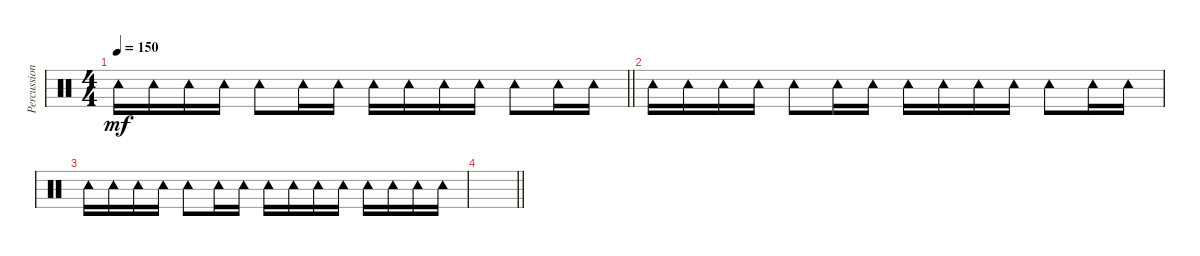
\track ("Percussion" "Percussion") {instrument percussion}
\staff {score}
\articulation defaults
\ts (4 4)
\tempo 150
\clef neutral
\barLineRight lightlight
\ks c "Tambourine (hit)".16{dy mf} "Tambourine (hit)".16 "Tambourine (hit)".16 "Tambourine (hit)".16 "Tambourine (hit)".8 "Tambourine (hit)".16 "Tambourine (hit)".16 "Tambourine (hit)".16 "Tambourine (hit)".16 "Tambourine (hit)".16 "Tambourine (hit)".16 "Tambourine (hit)".8 "Tambourine (hit)".16 "Tambourine (hit)".16
|
"Tambourine (hit)".16 "Tambourine (hit)".16 "Tambourine (hit)".16 "Tambourine (hit)".16 "Tambourine (hit)".8 "Tambourine (hit)".16 "Tambourine (hit)".16 "Tambourine (hit)".16 "Tambourine (hit)".16 "Tambourine (hit)".16 "Tambourine (hit)".16 "Tambourine (hit)".8 "Tambourine (hit)".16 "Tambourine (hit)".16 |
"Tambourine (hit)".16 "Tambourine (hit)".16 "Tambourine (hit)".16 "Tambourine (hit)".16 "Tambourine (hit)".8 "Tambourine (hit)".16 "Tambourine (hit)".16 "Tambourine (hit)".16 "Tambourine (hit)".16 "Tambourine (hit)".16 "Tambourine (hit)".16 "Tambourine (hit)".16 "Tambourine (hit)".16 "Tambourine (hit)".16 "Tambourine (hit)".16 |
\barLineRight lightlight
